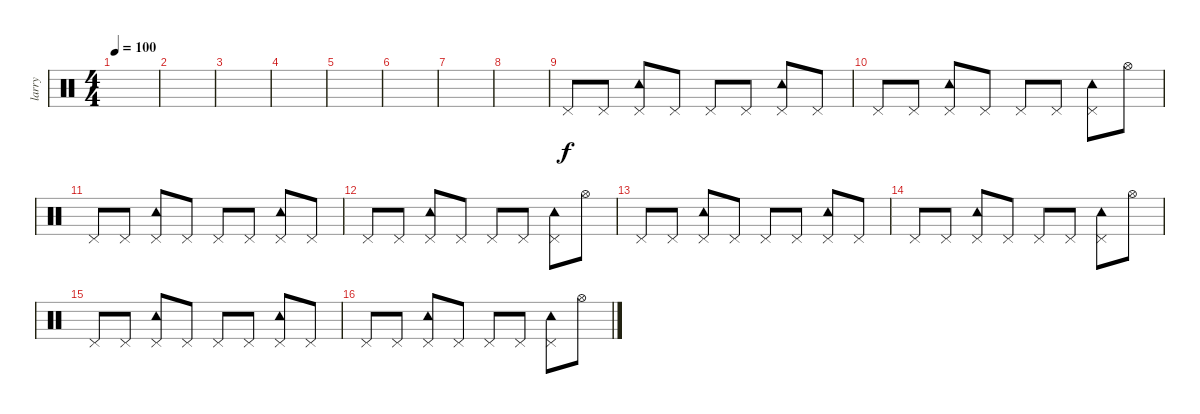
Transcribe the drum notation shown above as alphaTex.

\track ("larry" "larry") {instrument percussion}
\staff {score}
\articulation defaults
\ts (4 4)
\tempo 100
\clef neutral
\ks c
|
|
|
|
|
|
|
|
"Pedal Hi-Hat (hit)".8 "Pedal Hi-Hat (hit)".8 ("Pedal Hi-Hat (hit)" "Tambourine (hit)").8 "Pedal Hi-Hat (hit)".8 "Pedal Hi-Hat (hit)".8 "Pedal Hi-Hat (hit)".8 ("Pedal Hi-Hat (hit)" "Tambourine (hit)").8 "Pedal Hi-Hat (hit)".8 |
"Pedal Hi-Hat (hit)".8 "Pedal Hi-Hat (hit)".8 ("Pedal Hi-Hat (hit)" "Tambourine (hit)").8 "Pedal Hi-Hat (hit)".8 "Pedal Hi-Hat (hit)".8 "Pedal Hi-Hat (hit)".8 ("Pedal Hi-Hat (hit)" "Tambourine (hit)").8 "Hi-Hat (open)".8 |
"Pedal Hi-Hat (hit)".8 "Pedal Hi-Hat (hit)".8 ("Pedal Hi-Hat (hit)" "Tambourine (hit)").8 "Pedal Hi-Hat (hit)".8 "Pedal Hi-Hat (hit)".8 "Pedal Hi-Hat (hit)".8 ("Pedal Hi-Hat (hit)" "Tambourine (hit)").8 "Pedal Hi-Hat (hit)".8 |
"Pedal Hi-Hat (hit)".8 "Pedal Hi-Hat (hit)".8 ("Pedal Hi-Hat (hit)" "Tambourine (hit)").8 "Pedal Hi-Hat (hit)".8 "Pedal Hi-Hat (hit)".8 "Pedal Hi-Hat (hit)".8 ("Pedal Hi-Hat (hit)" "Tambourine (hit)").8 "Hi-Hat (open)".8 |
"Pedal Hi-Hat (hit)".8 "Pedal Hi-Hat (hit)".8 ("Pedal Hi-Hat (hit)" "Tambourine (hit)").8 "Pedal Hi-Hat (hit)".8 "Pedal Hi-Hat (hit)".8 "Pedal Hi-Hat (hit)".8 ("Pedal Hi-Hat (hit)" "Tambourine (hit)").8 "Pedal Hi-Hat (hit)".8 |
"Pedal Hi-Hat (hit)".8 "Pedal Hi-Hat (hit)".8 ("Pedal Hi-Hat (hit)" "Tambourine (hit)").8 "Pedal Hi-Hat (hit)".8 "Pedal Hi-Hat (hit)".8 "Pedal Hi-Hat (hit)".8 ("Pedal Hi-Hat (hit)" "Tambourine (hit)").8 "Hi-Hat (open)".8 |
"Pedal Hi-Hat (hit)".8 "Pedal Hi-Hat (hit)".8 ("Pedal Hi-Hat (hit)" "Tambourine (hit)").8 "Pedal Hi-Hat (hit)".8 "Pedal Hi-Hat (hit)".8 "Pedal Hi-Hat (hit)".8 ("Pedal Hi-Hat (hit)" "Tambourine (hit)").8 "Pedal Hi-Hat (hit)".8 |
"Pedal Hi-Hat (hit)".8 "Pedal Hi-Hat (hit)".8 ("Pedal Hi-Hat (hit)" "Tambourine (hit)").8 "Pedal Hi-Hat (hit)".8 "Pedal Hi-Hat (hit)".8 "Pedal Hi-Hat (hit)".8 ("Pedal Hi-Hat (hit)" "Tambourine (hit)").8 "Hi-Hat (open)".8
